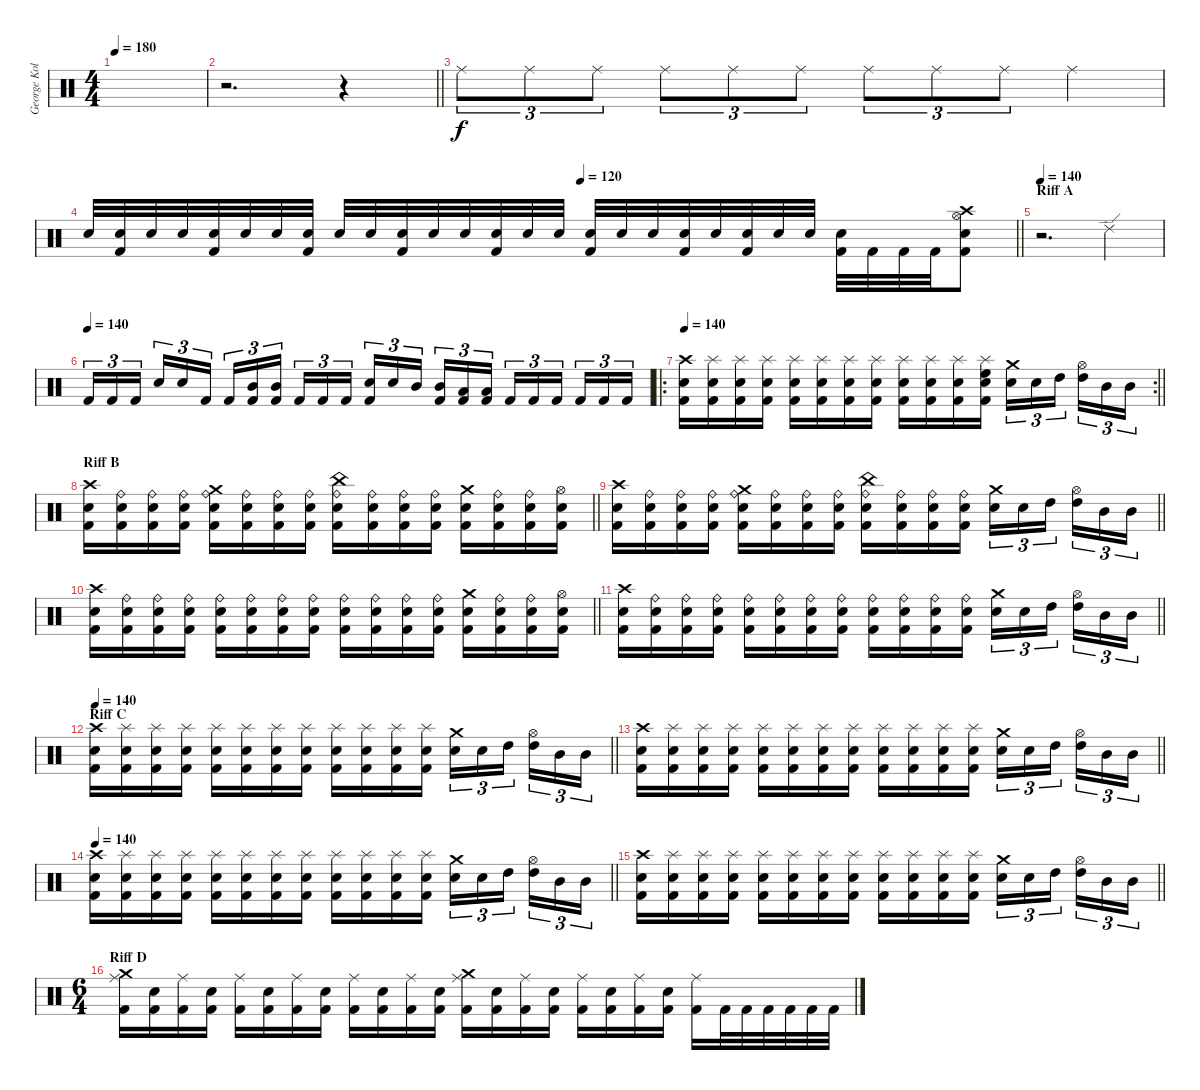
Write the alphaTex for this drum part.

\track ("George Kollias" "George Kol") {instrument percussion}
\staff {score}
\articulation defaults
\ts (4 4)
\tempo 180
\clef neutral
\ks c
|
\barLineRight lightlight
r.2{d} r.4{volume 0} |
"Ride (middle)".8{tu (3 2) volume 15} "Ride (middle)".8{tu (3 2)} "Ride (middle)".8{tu (3 2)} "Ride (middle)".8{tu (3 2)} "Ride (middle)".8{tu (3 2)} "Ride (middle)".8{tu (3 2)} "Ride (middle)".8{tu (3 2)} "Ride (middle)".8{tu (3 2)} "Ride (middle)".8{tu (3 2)} "Ride (middle)".4 |
\tempo (120 0.53125)
\barLineRight lightlight "Electric Snare (hit)".32
("Electric Snare (hit)" "Kick (hit) 2").32 "Electric Snare (hit)".32 "Electric Snare (hit)".32 ("Electric Snare (hit)" "Kick (hit) 2").32 "Electric Snare (hit)".32 "Electric Snare (hit)".32 ("Electric Snare (hit)" "Kick (hit) 2").32 "Electric Snare (hit)".32 "Electric Snare (hit)".32 ("Electric Snare (hit)" "Kick (hit) 2").32 "Electric Snare (hit)".32 "Electric Snare (hit)".32 ("Electric Snare (hit)" "Kick (hit) 2").32 "Electric Snare (hit)".32 "Electric Snare (hit)".32 ("Electric Snare (hit)" "Kick (hit) 2").32 "Electric Snare (hit)".32 "Electric Snare (hit)".32 ("Electric Snare (hit)" "Kick (hit) 2").32 "Electric Snare (hit)".32 ("Electric Snare (hit)" "Kick (hit) 2").32 "Electric Snare (hit)".32 "Electric Snare (hit)".32 ("Electric Snare (hit)" "Kick (hit) 2").32 "Kick (hit) 2".32 "Kick (hit) 2".32 "Kick (hit) 2".32 ("Crash high (hit)" "Hi-Hat (open)" "Electric Snare (hit)" "Kick (hit) 2").8 |
\section ("" "Riff A")
\tempo 140
r.2{d} "Ride (edge) 2".4 |
\tempo (140)
"Kick (hit) 2".16{tu (3 2)} "Kick (hit) 2".16{tu (3 2)} "Kick (hit) 2".16{tu (3 2) beam splitsecondary} "Electric Snare (hit)".16{tu (3 2)} "Electric Snare (hit)".16{tu (3 2)} "Kick (hit) 2".16{tu (3 2)} "Kick (hit) 2".16{tu (3 2)} ("Mid Tom (hit)" "Kick (hit) 2").16{tu (3 2)} ("Mid Tom (hit)" "Kick (hit) 2").16{tu (3 2) beam splitsecondary} "Kick (hit) 2".16{tu (3 2)} "Kick (hit) 2".16{tu (3 2)} "Kick (hit) 2".16{tu (3 2)} ("Electric Snare (hit)" "Kick (hit) 2").16{tu (3 2)} "Electric Snare (hit)".16{tu (3 2)} "Mid Tom (hit)".16{tu (3 2) beam splitsecondary} ("Mid Tom (hit)" "Kick (hit) 2").16{tu (3 2)} ("Low Tom (hit)" "Kick (hit) 2").16{tu (3 2)} ("Low Tom (hit)" "Kick (hit) 2").16{tu (3 2)} "Kick (hit) 2".16{tu (3 2)} "Kick (hit) 2".16{tu (3 2)} "Kick (hit) 2".16{tu (3 2) beam splitsecondary} "Kick (hit) 2".16{tu (3 2)} "Kick (hit) 2".16{tu (3 2)} "Kick (hit) 2".16{tu (3 2)} |
\ro
\rc 2
\tempo 140
\barLineRight lightlight
("Crash high (hit)" "Electric Snare (hit)" "Kick (hit) 2").16 ("Splash (hit)" "Electric Snare (hit)" "Kick (hit) 2").16 ("Splash (hit)" "Electric Snare (hit)" "Kick (hit) 2").16 ("Splash (hit)" "Electric Snare (hit)" "Kick (hit) 2").16 ("Splash (hit)" "Electric Snare (hit)" "Kick (hit) 2").16 ("Splash (hit)" "Electric Snare (hit)" "Kick (hit) 2").16 ("Splash (hit)" "Electric Snare (hit)" "Kick (hit) 2").16 ("Splash (hit)" "Electric Snare (hit)" "Kick (hit) 2").16 ("Splash (hit)" "Electric Snare (hit)" "Kick (hit) 2").16 ("Splash (hit)" "Electric Snare (hit)" "Kick (hit) 2").16 ("Splash (hit)" "Electric Snare (hit)" "Kick (hit) 2").16 ("High Floor Tom (hit)" "Splash (hit)" "Electric Snare (hit)" "Kick (hit) 2").16 ("Crash medium (hit)" "Electric Snare (hit)").16{tu (3 2)} "Electric Snare (hit)".16{tu (3 2)} "High Tom (hit)".16{tu (3 2) beam splitsecondary} ("Hi-Hat (open)" "High Tom (hit)").16{tu (3 2)} "Mid Tom (hit)".16{tu (3 2)} "Mid Tom (hit)".16{tu (3 2)} |
\section ("" "Riff B")
\barLineRight lightlight
("Crash high (hit)" "Electric Snare (hit)" "Kick (hit) 2").16 ("Ride (bell)" "Electric Snare (hit)" "Kick (hit) 2").16 ("Ride (bell)" "Electric Snare (hit)" "Kick (hit) 2").16 ("Ride (bell)" "Electric Snare (hit)" "Kick (hit) 2").16 ("Crash medium (hit)" "Ride (bell)" "Electric Snare (hit)" "Kick (hit) 2").16 ("Ride (bell)" "Electric Snare (hit)" "Kick (hit) 2").16 ("Ride (bell)" "Electric Snare (hit)" "Kick (hit) 2").16 ("Ride (bell)" "Electric Snare (hit)" "Kick (hit) 2").16 ("China (hit)" "Ride (bell)" "Electric Snare (hit)" "Kick (hit) 2").16 ("Ride (bell)" "Electric Snare (hit)" "Kick (hit) 2").16 ("Ride (bell)" "Electric Snare (hit)" "Kick (hit) 2").16 ("Ride (bell)" "Electric Snare (hit)" "Kick (hit) 2").16 ("Crash medium (hit)" "Electric Snare (hit)" "Kick (hit) 2").16 ("Ride (bell)" "Electric Snare (hit)" "Kick (hit) 2").16 ("Ride (bell)" "Electric Snare (hit)" "Kick (hit) 2").16 ("Hi-Hat (open)" "Electric Snare (hit)" "Kick (hit) 2").16 |
\barLineRight lightlight
("Crash high (hit)" "Electric Snare (hit)" "Kick (hit) 2").16 ("Ride (bell)" "Electric Snare (hit)" "Kick (hit) 2").16 ("Ride (bell)" "Electric Snare (hit)" "Kick (hit) 2").16 ("Ride (bell)" "Electric Snare (hit)" "Kick (hit) 2").16 ("Crash medium (hit)" "Ride (bell)" "Electric Snare (hit)" "Kick (hit) 2").16 ("Ride (bell)" "Electric Snare (hit)" "Kick (hit) 2").16 ("Ride (bell)" "Electric Snare (hit)" "Kick (hit) 2").16 ("Ride (bell)" "Electric Snare (hit)" "Kick (hit) 2").16 ("China (hit)" "Ride (bell)" "Electric Snare (hit)" "Kick (hit) 2").16 ("Ride (bell)" "Electric Snare (hit)" "Kick (hit) 2").16 ("Ride (bell)" "Electric Snare (hit)" "Kick (hit) 2").16 ("Ride (bell)" "Electric Snare (hit)" "Kick (hit) 2").16 ("Crash medium (hit)" "Electric Snare (hit)").16{tu (3 2)} "Electric Snare (hit)".16{tu (3 2)} "High Tom (hit)".16{tu (3 2) beam splitsecondary} ("Hi-Hat (open)" "High Tom (hit)").16{tu (3 2)} "Mid Tom (hit)".16{tu (3 2)} "Mid Tom (hit)".16{tu (3 2)} |
\barLineRight lightlight
("Crash high (hit)" "Electric Snare (hit)" "Kick (hit) 2").16 ("Ride (bell)" "Electric Snare (hit)" "Kick (hit) 2").16 ("Ride (bell)" "Electric Snare (hit)" "Kick (hit) 2").16 ("Ride (bell)" "Electric Snare (hit)" "Kick (hit) 2").16 ("Ride (bell)" "Electric Snare (hit)" "Kick (hit) 2").16 ("Ride (bell)" "Electric Snare (hit)" "Kick (hit) 2").16 ("Ride (bell)" "Electric Snare (hit)" "Kick (hit) 2").16 ("Ride (bell)" "Electric Snare (hit)" "Kick (hit) 2").16 ("Ride (bell)" "Electric Snare (hit)" "Kick (hit) 2").16 ("Ride (bell)" "Electric Snare (hit)" "Kick (hit) 2").16 ("Ride (bell)" "Electric Snare (hit)" "Kick (hit) 2").16 ("Ride (bell)" "Electric Snare (hit)" "Kick (hit) 2").16 ("Crash medium (hit)" "Electric Snare (hit)" "Kick (hit) 2").16 ("Ride (bell)" "Electric Snare (hit)" "Kick (hit) 2").16 ("Ride (bell)" "Electric Snare (hit)" "Kick (hit) 2").16 ("Hi-Hat (open)" "Electric Snare (hit)" "Kick (hit) 2").16 |
\barLineRight lightlight
("Crash high (hit)" "Electric Snare (hit)" "Kick (hit) 2").16 ("Ride (bell)" "Electric Snare (hit)" "Kick (hit) 2").16 ("Ride (bell)" "Electric Snare (hit)" "Kick (hit) 2").16 ("Ride (bell)" "Electric Snare (hit)" "Kick (hit) 2").16 ("Ride (bell)" "Electric Snare (hit)" "Kick (hit) 2").16 ("Ride (bell)" "Electric Snare (hit)" "Kick (hit) 2").16 ("Ride (bell)" "Electric Snare (hit)" "Kick (hit) 2").16 ("Ride (bell)" "Electric Snare (hit)" "Kick (hit) 2").16 ("Ride (bell)" "Electric Snare (hit)" "Kick (hit) 2").16 ("Ride (bell)" "Electric Snare (hit)" "Kick (hit) 2").16 ("Ride (bell)" "Electric Snare (hit)" "Kick (hit) 2").16 ("Ride (bell)" "Electric Snare (hit)" "Kick (hit) 2").16 ("Crash medium (hit)" "Electric Snare (hit)").16{tu (3 2)} "Electric Snare (hit)".16{tu (3 2)} "High Tom (hit)".16{tu (3 2) beam splitsecondary} ("Hi-Hat (open)" "High Tom (hit)").16{tu (3 2)} "Mid Tom (hit)".16{tu (3 2)} "Mid Tom (hit)".16{tu (3 2)} |
\section ("" "Riff C")
\tempo 140
\barLineRight lightlight
("Crash high (hit)" "Electric Snare (hit)" "Kick (hit) 2").16 ("Splash (hit)" "Electric Snare (hit)" "Kick (hit) 2").16 ("Splash (hit)" "Electric Snare (hit)" "Kick (hit) 2").16 ("Splash (hit)" "Electric Snare (hit)" "Kick (hit) 2").16 ("Splash (hit)" "Electric Snare (hit)" "Kick (hit) 2").16 ("Splash (hit)" "Electric Snare (hit)" "Kick (hit) 2").16 ("Splash (hit)" "Electric Snare (hit)" "Kick (hit) 2").16 ("Splash (hit)" "Electric Snare (hit)" "Kick (hit) 2").16 ("Splash (hit)" "Electric Snare (hit)" "Kick (hit) 2").16 ("Splash (hit)" "Electric Snare (hit)" "Kick (hit) 2").16 ("Splash (hit)" "Electric Snare (hit)" "Kick (hit) 2").16 ("Splash (hit)" "Electric Snare (hit)" "Kick (hit) 2").16 ("Crash medium (hit)" "Electric Snare (hit)").16{tu (3 2)} "Electric Snare (hit)".16{tu (3 2)} "High Tom (hit)".16{tu (3 2) beam splitsecondary} ("Hi-Hat (open)" "High Tom (hit)").16{tu (3 2)} "Mid Tom (hit)".16{tu (3 2)} "Mid Tom (hit)".16{tu (3 2)} |
\barLineRight lightlight
("Crash high (hit)" "Electric Snare (hit)" "Kick (hit) 2").16 ("Splash (hit)" "Electric Snare (hit)" "Kick (hit) 2").16 ("Splash (hit)" "Electric Snare (hit)" "Kick (hit) 2").16 ("Splash (hit)" "Electric Snare (hit)" "Kick (hit) 2").16 ("Splash (hit)" "Electric Snare (hit)" "Kick (hit) 2").16 ("Splash (hit)" "Electric Snare (hit)" "Kick (hit) 2").16 ("Splash (hit)" "Electric Snare (hit)" "Kick (hit) 2").16 ("Splash (hit)" "Electric Snare (hit)" "Kick (hit) 2").16 ("Splash (hit)" "Electric Snare (hit)" "Kick (hit) 2").16 ("Splash (hit)" "Electric Snare (hit)" "Kick (hit) 2").16 ("Splash (hit)" "Electric Snare (hit)" "Kick (hit) 2").16 ("Splash (hit)" "Electric Snare (hit)" "Kick (hit) 2").16 ("Crash medium (hit)" "Electric Snare (hit)").16{tu (3 2)} "Electric Snare (hit)".16{tu (3 2)} "High Tom (hit)".16{tu (3 2) beam splitsecondary} ("Hi-Hat (open)" "High Tom (hit)").16{tu (3 2)} "Mid Tom (hit)".16{tu (3 2)} "Mid Tom (hit)".16{tu (3 2)} |
\tempo 140
\barLineRight lightlight
("Crash high (hit)" "Electric Snare (hit)" "Kick (hit) 2").16 ("Splash (hit)" "Electric Snare (hit)" "Kick (hit) 2").16 ("Splash (hit)" "Electric Snare (hit)" "Kick (hit) 2").16 ("Splash (hit)" "Electric Snare (hit)" "Kick (hit) 2").16 ("Splash (hit)" "Electric Snare (hit)" "Kick (hit) 2").16 ("Splash (hit)" "Electric Snare (hit)" "Kick (hit) 2").16 ("Splash (hit)" "Electric Snare (hit)" "Kick (hit) 2").16 ("Splash (hit)" "Electric Snare (hit)" "Kick (hit) 2").16 ("Splash (hit)" "Electric Snare (hit)" "Kick (hit) 2").16 ("Splash (hit)" "Electric Snare (hit)" "Kick (hit) 2").16 ("Splash (hit)" "Electric Snare (hit)" "Kick (hit) 2").16 ("Splash (hit)" "Electric Snare (hit)" "Kick (hit) 2").16 ("Crash medium (hit)" "Electric Snare (hit)").16{tu (3 2)} "Electric Snare (hit)".16{tu (3 2)} "High Tom (hit)".16{tu (3 2) beam splitsecondary} ("Hi-Hat (open)" "High Tom (hit)").16{tu (3 2)} "Mid Tom (hit)".16{tu (3 2)} "Mid Tom (hit)".16{tu (3 2)} |
\barLineRight lightlight
("Crash high (hit)" "Electric Snare (hit)" "Kick (hit) 2").16 ("Splash (hit)" "Electric Snare (hit)" "Kick (hit) 2").16 ("Splash (hit)" "Electric Snare (hit)" "Kick (hit) 2").16 ("Splash (hit)" "Electric Snare (hit)" "Kick (hit) 2").16 ("Splash (hit)" "Electric Snare (hit)" "Kick (hit) 2").16 ("Splash (hit)" "Electric Snare (hit)" "Kick (hit) 2").16 ("Splash (hit)" "Electric Snare (hit)" "Kick (hit) 2").16 ("Splash (hit)" "Electric Snare (hit)" "Kick (hit) 2").16 ("Splash (hit)" "Electric Snare (hit)" "Kick (hit) 2").16 ("Splash (hit)" "Electric Snare (hit)" "Kick (hit) 2").16 ("Splash (hit)" "Electric Snare (hit)" "Kick (hit) 2").16 ("Splash (hit)" "Electric Snare (hit)" "Kick (hit) 2").16 ("Crash medium (hit)" "Electric Snare (hit)").16{tu (3 2)} "Electric Snare (hit)".16{tu (3 2)} "High Tom (hit)".16{tu (3 2) beam splitsecondary} ("Hi-Hat (open)" "High Tom (hit)").16{tu (3 2)} "Mid Tom (hit)".16{tu (3 2)} "Mid Tom (hit)".16{tu (3 2)} |
\ts (6 4)
\section ("" "Riff D")
("Crash medium (hit)" "Ride (middle)" "Kick (hit) 2").16 ("Electric Snare (hit)" "Kick (hit) 2").16 ("Ride (middle)" "Kick (hit) 2").16 ("Electric Snare (hit)" "Kick (hit) 2").16 ("Ride (middle)" "Kick (hit) 2").16 ("Electric Snare (hit)" "Kick (hit) 2").16 ("Ride (middle)" "Kick (hit) 2").16 ("Electric Snare (hit)" "Kick (hit) 2").16 ("Ride (middle)" "Kick (hit) 2").16 ("Electric Snare (hit)" "Kick (hit) 2").16 ("Ride (middle)" "Kick (hit) 2").16 ("Electric Snare (hit)" "Kick (hit) 2").16 ("Crash medium (hit)" "Ride (middle)" "Kick (hit) 2").16 ("Electric Snare (hit)" "Kick (hit) 2").16 ("Ride (middle)" "Kick (hit) 2").16 ("Electric Snare (hit)" "Kick (hit) 2").16 ("Ride (middle)" "Kick (hit) 2").16 ("Electric Snare (hit)" "Kick (hit) 2").16 ("Ride (middle)" "Kick (hit) 2").16 ("Electric Snare (hit)" "Kick (hit) 2").16 ("Ride (middle)" "Kick (hit) 2").16 "Kick (hit) 2".32 "Kick (hit) 2".32 "Kick (hit) 2".32 "Kick (hit) 2".32 "Kick (hit) 2".32 "Kick (hit) 2".32
